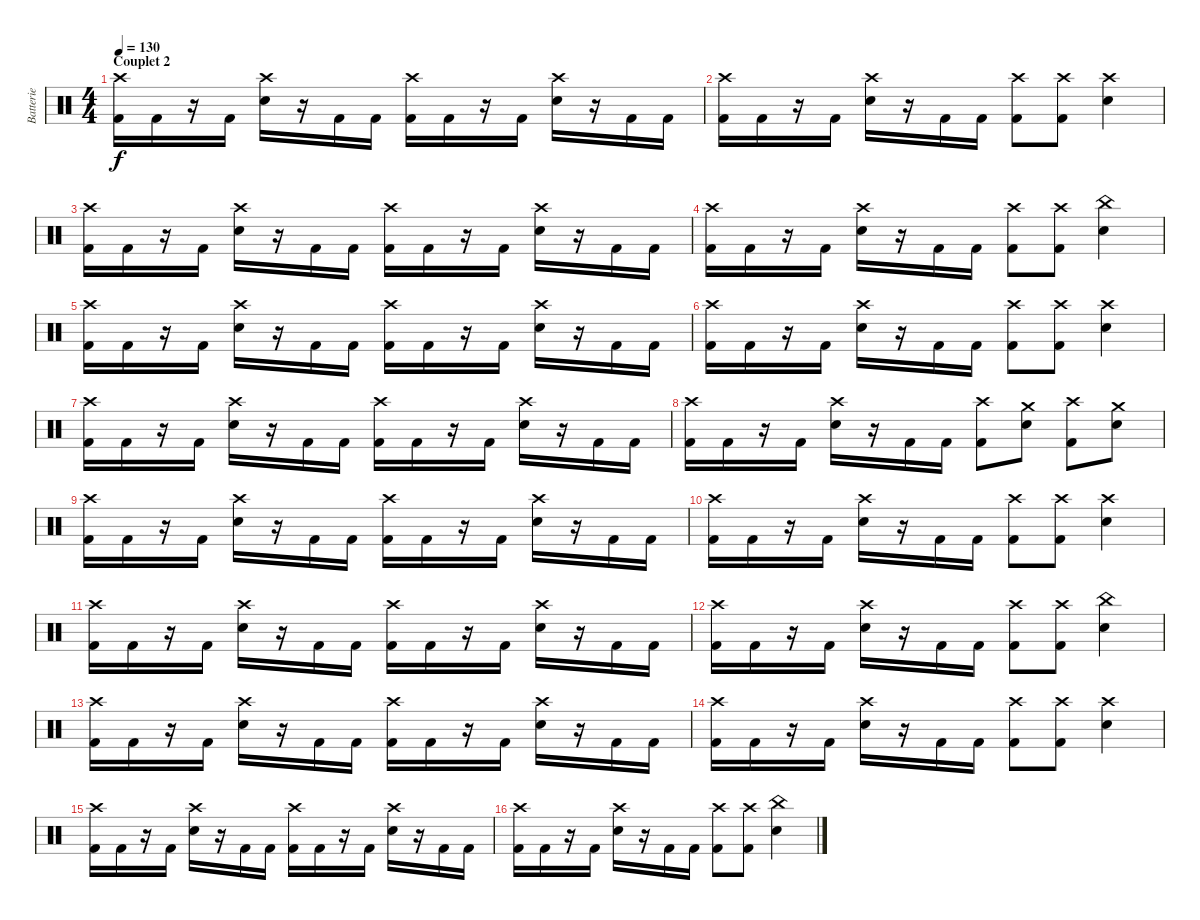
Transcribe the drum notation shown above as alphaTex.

\track ("Batterie" "Batterie") {instrument percussion}
\staff {score}
\articulation defaults
\ts (4 4)
\section ("" "Couplet 2")
\tempo 130
\clef neutral
\ks c
("Crash high (hit)" "Kick (hit) 2").16{dy f} "Kick (hit) 2".16 r.16 "Kick (hit) 2".16 ("Crash high (hit)" "Electric Snare (hit)").16 r.16 "Kick (hit) 2".16 "Kick (hit) 2".16 ("Crash high (hit)" "Kick (hit) 2").16 "Kick (hit) 2".16 r.16 "Kick (hit) 2".16 ("Crash high (hit)" "Electric Snare (hit)").16 r.16 "Kick (hit) 2".16 "Kick (hit) 2".16 |
("Crash high (hit)" "Kick (hit) 2").16 "Kick (hit) 2".16 r.16 "Kick (hit) 2".16 ("Crash high (hit)" "Electric Snare (hit)").16 r.16 "Kick (hit) 2".16 "Kick (hit) 2".16 ("Crash high (hit)" "Kick (hit) 2").8 ("Crash high (hit)" "Kick (hit) 2").8 ("Crash high (hit)" "Electric Snare (hit)").4 |
("Crash high (hit)" "Kick (hit) 2").16 "Kick (hit) 2".16 r.16 "Kick (hit) 2".16 ("Crash high (hit)" "Electric Snare (hit)").16 r.16 "Kick (hit) 2".16 "Kick (hit) 2".16 ("Crash high (hit)" "Kick (hit) 2").16 "Kick (hit) 2".16 r.16 "Kick (hit) 2".16 ("Crash high (hit)" "Electric Snare (hit)").16 r.16 "Kick (hit) 2".16 "Kick (hit) 2".16 |
("Crash high (hit)" "Kick (hit) 2").16 "Kick (hit) 2".16 r.16 "Kick (hit) 2".16 ("Crash high (hit)" "Electric Snare (hit)").16 r.16 "Kick (hit) 2".16 "Kick (hit) 2".16 ("Crash high (hit)" "Kick (hit) 2").8 ("Crash high (hit)" "Kick (hit) 2").8 ("China (hit)" "Electric Snare (hit)").4 |
("Crash high (hit)" "Kick (hit) 2").16 "Kick (hit) 2".16 r.16 "Kick (hit) 2".16 ("Crash high (hit)" "Electric Snare (hit)").16 r.16 "Kick (hit) 2".16 "Kick (hit) 2".16 ("Crash high (hit)" "Kick (hit) 2").16 "Kick (hit) 2".16 r.16 "Kick (hit) 2".16 ("Crash high (hit)" "Electric Snare (hit)").16 r.16 "Kick (hit) 2".16 "Kick (hit) 2".16 |
("Crash high (hit)" "Kick (hit) 2").16 "Kick (hit) 2".16 r.16 "Kick (hit) 2".16 ("Crash high (hit)" "Electric Snare (hit)").16 r.16 "Kick (hit) 2".16 "Kick (hit) 2".16 ("Crash high (hit)" "Kick (hit) 2").8 ("Crash high (hit)" "Kick (hit) 2").8 ("Crash high (hit)" "Electric Snare (hit)").4 |
("Crash high (hit)" "Kick (hit) 2").16 "Kick (hit) 2".16 r.16 "Kick (hit) 2".16 ("Crash high (hit)" "Electric Snare (hit)").16 r.16 "Kick (hit) 2".16 "Kick (hit) 2".16 ("Crash high (hit)" "Kick (hit) 2").16 "Kick (hit) 2".16 r.16 "Kick (hit) 2".16 ("Crash high (hit)" "Electric Snare (hit)").16 r.16 "Kick (hit) 2".16 "Kick (hit) 2".16 |
("Crash high (hit)" "Kick (hit) 2").16 "Kick (hit) 2".16 r.16 "Kick (hit) 2".16 ("Crash high (hit)" "Electric Snare (hit)").16 r.16 "Kick (hit) 2".16 "Kick (hit) 2".16 ("Crash high (hit)" "Kick (hit) 2").8 ("Crash medium (hit)" "Electric Snare (hit)").8 ("Crash high (hit)" "Kick (hit) 2").8 ("Crash medium (hit)" "Electric Snare (hit)").8 |
("Crash high (hit)" "Kick (hit) 2").16 "Kick (hit) 2".16 r.16 "Kick (hit) 2".16 ("Crash high (hit)" "Electric Snare (hit)").16 r.16 "Kick (hit) 2".16 "Kick (hit) 2".16 ("Crash high (hit)" "Kick (hit) 2").16 "Kick (hit) 2".16 r.16 "Kick (hit) 2".16 ("Crash high (hit)" "Electric Snare (hit)").16 r.16 "Kick (hit) 2".16 "Kick (hit) 2".16 |
("Crash high (hit)" "Kick (hit) 2").16 "Kick (hit) 2".16 r.16 "Kick (hit) 2".16 ("Crash high (hit)" "Electric Snare (hit)").16 r.16 "Kick (hit) 2".16 "Kick (hit) 2".16 ("Crash high (hit)" "Kick (hit) 2").8 ("Crash high (hit)" "Kick (hit) 2").8 ("Crash high (hit)" "Electric Snare (hit)").4 |
("Crash high (hit)" "Kick (hit) 2").16 "Kick (hit) 2".16 r.16 "Kick (hit) 2".16 ("Crash high (hit)" "Electric Snare (hit)").16 r.16 "Kick (hit) 2".16 "Kick (hit) 2".16 ("Crash high (hit)" "Kick (hit) 2").16 "Kick (hit) 2".16 r.16 "Kick (hit) 2".16 ("Crash high (hit)" "Electric Snare (hit)").16 r.16 "Kick (hit) 2".16 "Kick (hit) 2".16 |
("Crash high (hit)" "Kick (hit) 2").16 "Kick (hit) 2".16 r.16 "Kick (hit) 2".16 ("Crash high (hit)" "Electric Snare (hit)").16 r.16 "Kick (hit) 2".16 "Kick (hit) 2".16 ("Crash high (hit)" "Kick (hit) 2").8 ("Crash high (hit)" "Kick (hit) 2").8 ("China (hit)" "Electric Snare (hit)").4 |
("Crash high (hit)" "Kick (hit) 2").16 "Kick (hit) 2".16 r.16 "Kick (hit) 2".16 ("Crash high (hit)" "Electric Snare (hit)").16 r.16 "Kick (hit) 2".16 "Kick (hit) 2".16 ("Crash high (hit)" "Kick (hit) 2").16 "Kick (hit) 2".16 r.16 "Kick (hit) 2".16 ("Crash high (hit)" "Electric Snare (hit)").16 r.16 "Kick (hit) 2".16 "Kick (hit) 2".16 |
("Crash high (hit)" "Kick (hit) 2").16 "Kick (hit) 2".16 r.16 "Kick (hit) 2".16 ("Crash high (hit)" "Electric Snare (hit)").16 r.16 "Kick (hit) 2".16 "Kick (hit) 2".16 ("Crash high (hit)" "Kick (hit) 2").8 ("Crash high (hit)" "Kick (hit) 2").8 ("Crash high (hit)" "Electric Snare (hit)").4 |
("Crash high (hit)" "Kick (hit) 2").16 "Kick (hit) 2".16 r.16 "Kick (hit) 2".16 ("Crash high (hit)" "Electric Snare (hit)").16 r.16 "Kick (hit) 2".16 "Kick (hit) 2".16 ("Crash high (hit)" "Kick (hit) 2").16 "Kick (hit) 2".16 r.16 "Kick (hit) 2".16 ("Crash high (hit)" "Electric Snare (hit)").16 r.16 "Kick (hit) 2".16 "Kick (hit) 2".16 |
("Crash high (hit)" "Kick (hit) 2").16 "Kick (hit) 2".16 r.16 "Kick (hit) 2".16 ("Crash high (hit)" "Electric Snare (hit)").16 r.16 "Kick (hit) 2".16 "Kick (hit) 2".16 ("Crash high (hit)" "Kick (hit) 2").8 ("Crash high (hit)" "Kick (hit) 2").8 ("China (hit)" "Electric Snare (hit)").4
